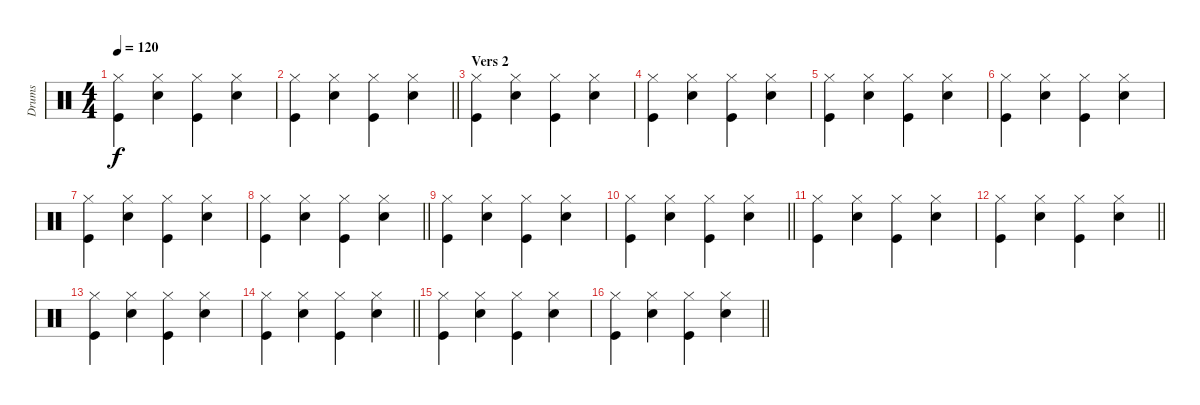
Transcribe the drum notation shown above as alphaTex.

\track ("Drums" "Drums") {instrument percussion}
\staff {score}
\articulation defaults
\ts (4 4)
\tempo 120
\clef neutral
\ks c
("Hi-Hat (closed)" "Kick (hit)").4{dy f} ("Hi-Hat (closed)" "Snare (hit) 2").4 ("Hi-Hat (closed)" "Kick (hit)").4 ("Hi-Hat (closed)" "Snare (hit) 2").4 |
\barLineRight lightlight
("Hi-Hat (closed)" "Kick (hit)").4 ("Hi-Hat (closed)" "Snare (hit) 2").4 ("Hi-Hat (closed)" "Kick (hit)").4 ("Hi-Hat (closed)" "Snare (hit) 2").4 |
\section ("" "Vers 2")
("Hi-Hat (closed)" "Kick (hit)").4 ("Hi-Hat (closed)" "Snare (hit) 2").4 ("Hi-Hat (closed)" "Kick (hit)").4 ("Hi-Hat (closed)" "Snare (hit) 2").4 |
("Hi-Hat (closed)" "Kick (hit)").4 ("Hi-Hat (closed)" "Snare (hit) 2").4 ("Hi-Hat (closed)" "Kick (hit)").4 ("Hi-Hat (closed)" "Snare (hit) 2").4 |
("Hi-Hat (closed)" "Kick (hit)").4 ("Hi-Hat (closed)" "Snare (hit) 2").4 ("Hi-Hat (closed)" "Kick (hit)").4 ("Hi-Hat (closed)" "Snare (hit) 2").4 |
("Hi-Hat (closed)" "Kick (hit)").4 ("Hi-Hat (closed)" "Snare (hit) 2").4 ("Hi-Hat (closed)" "Kick (hit)").4 ("Hi-Hat (closed)" "Snare (hit) 2").4 |
("Hi-Hat (closed)" "Kick (hit)").4 ("Hi-Hat (closed)" "Snare (hit) 2").4 ("Hi-Hat (closed)" "Kick (hit)").4 ("Hi-Hat (closed)" "Snare (hit) 2").4 |
\barLineRight lightlight
("Hi-Hat (closed)" "Kick (hit)").4 ("Hi-Hat (closed)" "Snare (hit) 2").4 ("Hi-Hat (closed)" "Kick (hit)").4 ("Hi-Hat (closed)" "Snare (hit) 2").4 |
("Hi-Hat (closed)" "Kick (hit)").4 ("Hi-Hat (closed)" "Snare (hit) 2").4 ("Hi-Hat (closed)" "Kick (hit)").4 ("Hi-Hat (closed)" "Snare (hit) 2").4 |
\barLineRight lightlight
("Hi-Hat (closed)" "Kick (hit)").4 ("Hi-Hat (closed)" "Snare (hit) 2").4 ("Hi-Hat (closed)" "Kick (hit)").4 ("Hi-Hat (closed)" "Snare (hit) 2").4 |
("Hi-Hat (closed)" "Kick (hit)").4 ("Hi-Hat (closed)" "Snare (hit) 2").4 ("Hi-Hat (closed)" "Kick (hit)").4 ("Hi-Hat (closed)" "Snare (hit) 2").4 |
\barLineRight lightlight
("Hi-Hat (closed)" "Kick (hit)").4 ("Hi-Hat (closed)" "Snare (hit) 2").4 ("Hi-Hat (closed)" "Kick (hit)").4 ("Hi-Hat (closed)" "Snare (hit) 2").4 |
("Hi-Hat (closed)" "Kick (hit)").4 ("Hi-Hat (closed)" "Snare (hit) 2").4 ("Hi-Hat (closed)" "Kick (hit)").4 ("Hi-Hat (closed)" "Snare (hit) 2").4 |
\barLineRight lightlight
("Hi-Hat (closed)" "Kick (hit)").4 ("Hi-Hat (closed)" "Snare (hit) 2").4 ("Hi-Hat (closed)" "Kick (hit)").4 ("Hi-Hat (closed)" "Snare (hit) 2").4 |
("Hi-Hat (closed)" "Kick (hit)").4 ("Hi-Hat (closed)" "Snare (hit) 2").4 ("Hi-Hat (closed)" "Kick (hit)").4 ("Hi-Hat (closed)" "Snare (hit) 2").4 |
\barLineRight lightlight
("Hi-Hat (closed)" "Kick (hit)").4 ("Hi-Hat (closed)" "Snare (hit) 2").4 ("Hi-Hat (closed)" "Kick (hit)").4 ("Hi-Hat (closed)" "Snare (hit) 2").4
